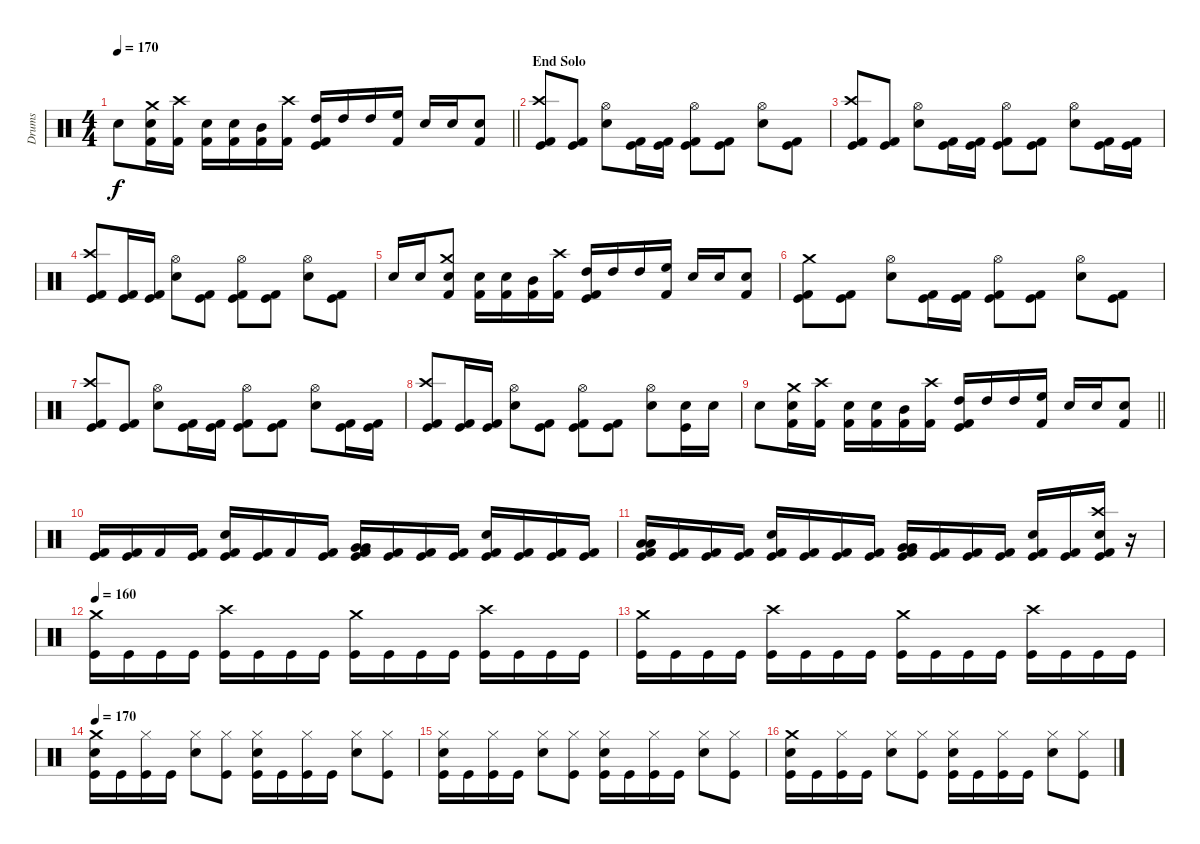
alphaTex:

\track ("Drums" "Drums") {instrument percussion}
\staff {score}
\articulation defaults
\ts (4 4)
\tempo 170
\clef neutral
\barLineRight lightlight
\ks c "Snare (hit) 2".8{dy f}
("Crash medium (hit)" "Snare (hit) 2" "Kick (hit) 2").16 ("Crash high (hit)" "Kick (hit) 2").16 ("Snare (hit) 2" "Kick (hit) 2").16 ("Snare (hit) 2" "Kick (hit) 2").16 ("Mid Tom (hit)" "Kick (hit) 2").16 ("Crash high (hit)" "Kick (hit) 2").16 ("High Tom (hit)" "Kick (hit)" "Kick (hit) 2").16 "High Tom (hit)".16 "High Tom (hit)".16 ("High Floor Tom (hit)" "Kick (hit) 2").16 "Snare (hit) 2".16 "Snare (hit) 2".16 ("Snare (hit) 2" "Kick (hit) 2").8 |
\section ("" "End Solo")
("Crash high (hit)" "Kick (hit) 2" "Kick (hit)").8 ("Kick (hit) 2" "Kick (hit)").8 ("Hi-Hat (open)" "Snare (hit) 2").8 ("Kick (hit) 2" "Kick (hit)").16 ("Kick (hit) 2" "Kick (hit)").16 ("Hi-Hat (open)" "Kick (hit) 2" "Kick (hit)").8 ("Kick (hit) 2" "Kick (hit)").8 ("Hi-Hat (open)" "Snare (hit) 2").8 ("Kick (hit) 2" "Kick (hit)").8 |
("Crash high (hit)" "Kick (hit) 2" "Kick (hit)").8 ("Kick (hit) 2" "Kick (hit)").8 ("Hi-Hat (open)" "Snare (hit) 2").8 ("Kick (hit) 2" "Kick (hit)").16 ("Kick (hit) 2" "Kick (hit)").16 ("Hi-Hat (open)" "Kick (hit) 2" "Kick (hit)").8 ("Kick (hit) 2" "Kick (hit)").8 ("Hi-Hat (open)" "Snare (hit) 2").8 ("Kick (hit) 2" "Kick (hit)").16 ("Kick (hit) 2" "Kick (hit)").16 |
("Crash high (hit)" "Kick (hit) 2" "Kick (hit)").8 ("Kick (hit) 2" "Kick (hit)").16 ("Kick (hit) 2" "Kick (hit)").16 ("Hi-Hat (open)" "Snare (hit) 2").8 ("Kick (hit) 2" "Kick (hit)").8 ("Hi-Hat (open)" "Kick (hit) 2" "Kick (hit)").8 ("Kick (hit) 2" "Kick (hit)").8 ("Hi-Hat (open)" "Snare (hit) 2").8 ("Kick (hit) 2" "Kick (hit)").8 |
"Snare (hit) 2".16 "Snare (hit) 2".16 ("Crash medium (hit)" "Snare (hit) 2" "Kick (hit) 2").8 ("Snare (hit) 2" "Kick (hit) 2").16 ("Snare (hit) 2" "Kick (hit) 2").16 ("Mid Tom (hit)" "Kick (hit) 2").16 ("Crash high (hit)" "Kick (hit) 2").16 ("High Tom (hit)" "Kick (hit)" "Kick (hit) 2").16 "High Tom (hit)".16 "High Tom (hit)".16 ("High Floor Tom (hit)" "Kick (hit) 2").16 "Snare (hit) 2".16 "Snare (hit) 2".16 ("Snare (hit) 2" "Kick (hit) 2").8 |
("Crash medium (hit)" "Kick (hit) 2" "Kick (hit)").8 ("Kick (hit) 2" "Kick (hit)").8 ("Hi-Hat (open)" "Snare (hit) 2").8 ("Kick (hit) 2" "Kick (hit)").16 ("Kick (hit) 2" "Kick (hit)").16 ("Hi-Hat (open)" "Kick (hit) 2" "Kick (hit)").8 ("Kick (hit) 2" "Kick (hit)").8 ("Hi-Hat (open)" "Snare (hit) 2").8 ("Kick (hit) 2" "Kick (hit)").8 |
("Crash high (hit)" "Kick (hit) 2" "Kick (hit)").8 ("Kick (hit) 2" "Kick (hit)").8 ("Hi-Hat (open)" "Snare (hit) 2").8 ("Kick (hit) 2" "Kick (hit)").16 ("Kick (hit) 2" "Kick (hit)").16 ("Hi-Hat (open)" "Kick (hit) 2" "Kick (hit)").8 ("Kick (hit) 2" "Kick (hit)").8 ("Hi-Hat (open)" "Snare (hit) 2").8 ("Kick (hit) 2" "Kick (hit)").16 ("Kick (hit) 2" "Kick (hit)").16 |
("Crash high (hit)" "Kick (hit) 2" "Kick (hit)").8 ("Kick (hit) 2" "Kick (hit)").16 ("Kick (hit) 2" "Kick (hit)").16 ("Hi-Hat (open)" "Snare (hit) 2").8 ("Kick (hit) 2" "Kick (hit)").8 ("Hi-Hat (open)" "Kick (hit) 2" "Kick (hit)").8 ("Kick (hit) 2" "Kick (hit)").8 ("Hi-Hat (open)" "Snare (hit) 2").8 ("Snare (hit) 2" "Kick (hit)").16 "Snare (hit) 2".16 |
\barLineRight lightlight "Snare (hit) 2".8
("Crash medium (hit)" "Snare (hit) 2" "Kick (hit) 2").16 ("Crash high (hit)" "Kick (hit) 2").16 ("Snare (hit) 2" "Kick (hit) 2").16 ("Snare (hit) 2" "Kick (hit) 2").16 ("Mid Tom (hit)" "Kick (hit) 2").16 ("Crash high (hit)" "Kick (hit) 2").16 ("High Tom (hit)" "Kick (hit)" "Kick (hit) 2").16 "High Tom (hit)".16 "High Tom (hit)".16 ("High Floor Tom (hit)" "Kick (hit) 2").16 "Snare (hit) 2".16 "Snare (hit) 2".16 ("Snare (hit) 2" "Kick (hit) 2").8 |
("Kick (hit)" "Kick (hit) 2").16 ("Kick (hit)" "Kick (hit) 2").16 "Kick (hit) 2".16 ("Kick (hit)" "Kick (hit) 2").16 ("Snare (hit) 2" "Kick (hit)" "Kick (hit) 2").16 ("Kick (hit)" "Kick (hit) 2").16 "Kick (hit) 2".16 ("Kick (hit)" "Kick (hit) 2").16 ("Very Low Tom (hit)" "Very Low Tom (hit)" "Kick (hit)" "Kick (hit) 2").16 ("Kick (hit)" "Kick (hit) 2").16 ("Kick (hit)" "Kick (hit) 2").16 ("Kick (hit)" "Kick (hit) 2").16 ("Snare (hit) 2" "Kick (hit)" "Kick (hit) 2").16 ("Kick (hit)" "Kick (hit) 2").16 ("Kick (hit)" "Kick (hit) 2").16 ("Kick (hit)" "Kick (hit) 2").16 |
("Low Tom (hit)" "Low Tom (hit)" "Kick (hit)" "Kick (hit) 2").16 ("Kick (hit)" "Kick (hit) 2").16 ("Kick (hit)" "Kick (hit) 2").16 ("Kick (hit)" "Kick (hit) 2").16 ("Snare (hit) 2" "Kick (hit)" "Kick (hit) 2").16 ("Kick (hit)" "Kick (hit) 2").16 ("Kick (hit)" "Kick (hit) 2").16 ("Kick (hit)" "Kick (hit) 2").16 ("Very Low Tom (hit)" "Very Low Tom (hit)" "Kick (hit)" "Kick (hit) 2").16 ("Kick (hit)" "Kick (hit) 2").16 ("Kick (hit)" "Kick (hit) 2").16 ("Kick (hit)" "Kick (hit) 2").16 ("Snare (hit) 2" "Kick (hit)" "Kick (hit) 2").16 ("Kick (hit)" "Kick (hit) 2").16 ("Crash high (hit)" "Snare (hit) 2" "Kick (hit)" "Kick (hit) 2").16 r.16 |
\tempo 160
("Crash medium (hit)" "Kick (hit)").16 "Kick (hit)".16 "Kick (hit)".16 "Kick (hit)".16 ("Crash high (hit)" "Kick (hit)").16 "Kick (hit)".16 "Kick (hit)".16 "Kick (hit)".16 ("Crash medium (hit)" "Kick (hit)").16 "Kick (hit)".16 "Kick (hit)".16 "Kick (hit)".16 ("Crash high (hit)" "Kick (hit)").16 "Kick (hit)".16 "Kick (hit)".16 "Kick (hit)".16 |
("Crash medium (hit)" "Kick (hit)").16 "Kick (hit)".16 "Kick (hit)".16 "Kick (hit)".16 ("Crash high (hit)" "Kick (hit)").16 "Kick (hit)".16 "Kick (hit)".16 "Kick (hit)".16 ("Crash medium (hit)" "Kick (hit)").16 "Kick (hit)".16 "Kick (hit)".16 "Kick (hit)".16 ("Crash high (hit)" "Kick (hit)").16 "Kick (hit)".16 "Kick (hit)".16 "Kick (hit)".16 |
\tempo 170
("Crash medium (hit)" "Snare (hit) 2" "Kick (hit)").16 "Kick (hit)".16 ("Hi-Hat (closed)" "Kick (hit)").16 "Kick (hit)".16 ("Hi-Hat (closed)" "Snare (hit) 2").8 ("Hi-Hat (closed)" "Kick (hit)").8 ("Hi-Hat (closed)" "Snare (hit) 2" "Kick (hit)").16 "Kick (hit)".16 ("Hi-Hat (closed)" "Kick (hit)").16 "Kick (hit)".16 ("Hi-Hat (closed)" "Snare (hit) 2").8 ("Hi-Hat (closed)" "Kick (hit)").8 |
("Hi-Hat (closed)" "Snare (hit) 2" "Kick (hit)").16 "Kick (hit)".16 ("Hi-Hat (closed)" "Kick (hit)").16 "Kick (hit)".16 ("Hi-Hat (closed)" "Snare (hit) 2").8 ("Hi-Hat (closed)" "Kick (hit)").8 ("Hi-Hat (closed)" "Snare (hit) 2" "Kick (hit)").16 "Kick (hit)".16 ("Hi-Hat (closed)" "Kick (hit)").16 "Kick (hit)".16 ("Hi-Hat (closed)" "Snare (hit) 2").8 ("Hi-Hat (closed)" "Kick (hit)").8 |
("Crash medium (hit)" "Snare (hit) 2" "Kick (hit)").16 "Kick (hit)".16 ("Hi-Hat (closed)" "Kick (hit)").16 "Kick (hit)".16 ("Hi-Hat (closed)" "Snare (hit) 2").8 ("Hi-Hat (closed)" "Kick (hit)").8 ("Hi-Hat (closed)" "Snare (hit) 2" "Kick (hit)").16 "Kick (hit)".16 ("Hi-Hat (closed)" "Kick (hit)").16 "Kick (hit)".16 ("Hi-Hat (closed)" "Snare (hit) 2").8 ("Hi-Hat (closed)" "Kick (hit)").8
